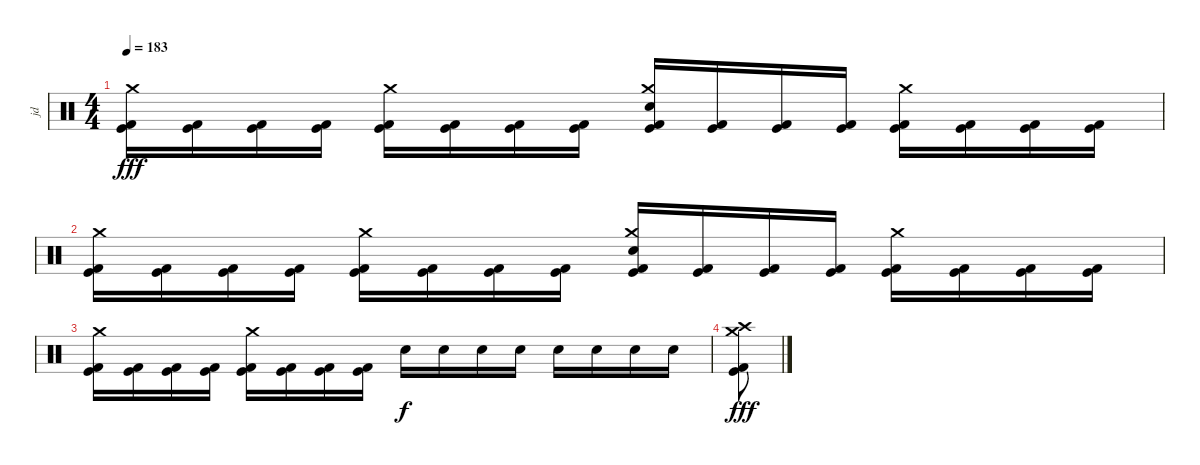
\track ("jd" "jd") {instrument percussion}
\staff {score}
\articulation defaults
\ts (4 4)
\tempo 183
\clef neutral
\ks c
("Kick (hit)" "Kick (hit) 2" "Crash medium (hit)").16{dy fff} ("Kick (hit)" "Kick (hit) 2").16 ("Kick (hit)" "Kick (hit) 2").16 ("Kick (hit)" "Kick (hit) 2").16 ("Kick (hit)" "Kick (hit) 2" "Crash medium (hit)").16 ("Kick (hit)" "Kick (hit) 2").16 ("Kick (hit)" "Kick (hit) 2").16 ("Kick (hit)" "Kick (hit) 2").16 ("Kick (hit)" "Kick (hit) 2" "Electric Snare (hit)" "Crash medium (hit)").16 ("Kick (hit)" "Kick (hit) 2").16 ("Kick (hit)" "Kick (hit) 2").16 ("Kick (hit)" "Kick (hit) 2").16 ("Kick (hit)" "Kick (hit) 2" "Crash medium (hit)").16 ("Kick (hit)" "Kick (hit) 2").16 ("Kick (hit)" "Kick (hit) 2").16 ("Kick (hit)" "Kick (hit) 2").16 |
("Kick (hit)" "Kick (hit) 2" "Crash medium (hit)").16 ("Kick (hit)" "Kick (hit) 2").16 ("Kick (hit)" "Kick (hit) 2").16 ("Kick (hit)" "Kick (hit) 2").16 ("Kick (hit)" "Kick (hit) 2" "Crash medium (hit)").16 ("Kick (hit)" "Kick (hit) 2").16 ("Kick (hit)" "Kick (hit) 2").16 ("Kick (hit)" "Kick (hit) 2").16 ("Kick (hit)" "Kick (hit) 2" "Electric Snare (hit)" "Crash medium (hit)").16 ("Kick (hit)" "Kick (hit) 2").16 ("Kick (hit)" "Kick (hit) 2").16 ("Kick (hit)" "Kick (hit) 2").16 ("Kick (hit)" "Kick (hit) 2" "Crash medium (hit)").16 ("Kick (hit)" "Kick (hit) 2").16 ("Kick (hit)" "Kick (hit) 2").16 ("Kick (hit)" "Kick (hit) 2").16 |
("Kick (hit)" "Kick (hit) 2" "Crash medium (hit)").16 ("Kick (hit)" "Kick (hit) 2").16 ("Kick (hit)" "Kick (hit) 2").16 ("Kick (hit)" "Kick (hit) 2").16 ("Kick (hit)" "Kick (hit) 2" "Crash medium (hit)").16 ("Kick (hit)" "Kick (hit) 2").16 ("Kick (hit)" "Kick (hit) 2").16 ("Kick (hit)" "Kick (hit) 2").16 "Electric Snare (hit)".16{dy f} "Electric Snare (hit)".16 "Electric Snare (hit)".16 "Electric Snare (hit)".16 "Electric Snare (hit)".16 "Electric Snare (hit)".16 "Electric Snare (hit)".16 "Electric Snare (hit)".16 |
("Kick (hit)" "Kick (hit) 2" "Crash high (hit)" "Crash medium (hit)").8{dy fff}
